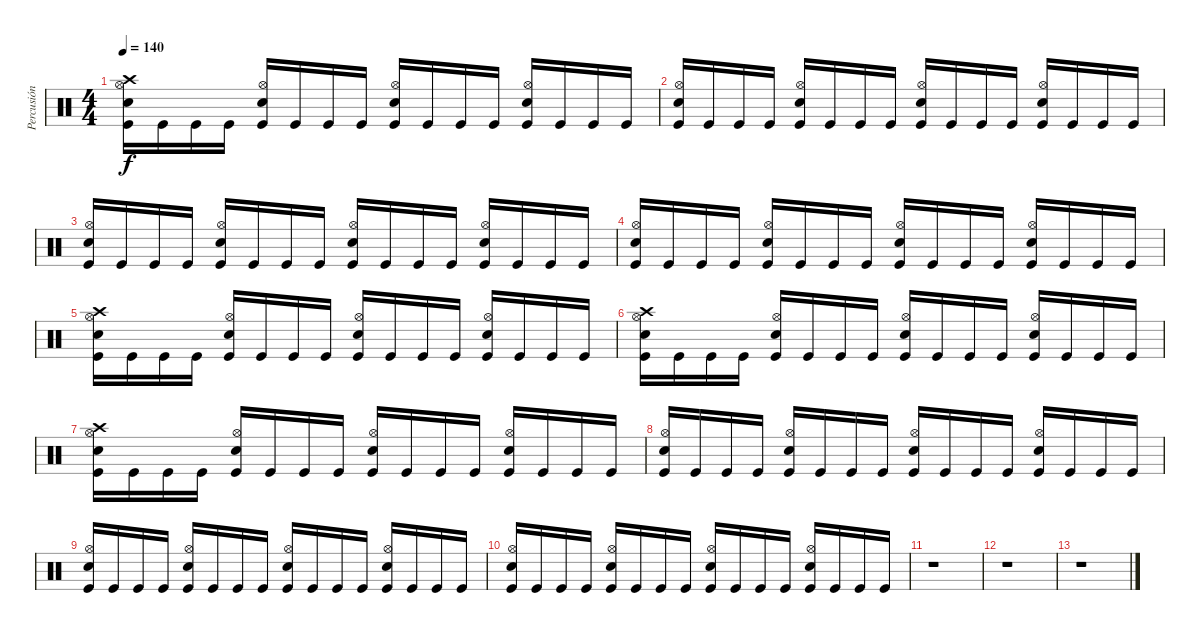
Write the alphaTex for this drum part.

\track ("Percusión" "Percusión") {instrument percussion}
\staff {score}
\articulation defaults
\ts (4 4)
\tempo 140
\clef neutral
\ks c
("Crash high (hit)" "Snare (hit) 2" "Hi-Hat (open)" "Kick (hit)").16{dy f} "Kick (hit)".16 "Kick (hit)".16 "Kick (hit)".16 ("Snare (hit) 2" "Hi-Hat (open)" "Kick (hit)").16 "Kick (hit)".16 "Kick (hit)".16 "Kick (hit)".16 ("Snare (hit) 2" "Hi-Hat (open)" "Kick (hit)").16 "Kick (hit)".16 "Kick (hit)".16 "Kick (hit)".16 ("Snare (hit) 2" "Hi-Hat (open)" "Kick (hit)").16 "Kick (hit)".16 "Kick (hit)".16 "Kick (hit)".16 |
("Snare (hit) 2" "Hi-Hat (open)" "Kick (hit)").16 "Kick (hit)".16 "Kick (hit)".16 "Kick (hit)".16 ("Snare (hit) 2" "Hi-Hat (open)" "Kick (hit)").16 "Kick (hit)".16 "Kick (hit)".16 "Kick (hit)".16 ("Snare (hit) 2" "Hi-Hat (open)" "Kick (hit)").16 "Kick (hit)".16 "Kick (hit)".16 "Kick (hit)".16 ("Snare (hit) 2" "Hi-Hat (open)" "Kick (hit)").16 "Kick (hit)".16 "Kick (hit)".16 "Kick (hit)".16 |
("Snare (hit) 2" "Hi-Hat (open)" "Kick (hit)").16 "Kick (hit)".16 "Kick (hit)".16 "Kick (hit)".16 ("Snare (hit) 2" "Hi-Hat (open)" "Kick (hit)").16 "Kick (hit)".16 "Kick (hit)".16 "Kick (hit)".16 ("Snare (hit) 2" "Hi-Hat (open)" "Kick (hit)").16 "Kick (hit)".16 "Kick (hit)".16 "Kick (hit)".16 ("Snare (hit) 2" "Hi-Hat (open)" "Kick (hit)").16 "Kick (hit)".16 "Kick (hit)".16 "Kick (hit)".16 |
("Snare (hit) 2" "Hi-Hat (open)" "Kick (hit)").16 "Kick (hit)".16 "Kick (hit)".16 "Kick (hit)".16 ("Snare (hit) 2" "Hi-Hat (open)" "Kick (hit)").16 "Kick (hit)".16 "Kick (hit)".16 "Kick (hit)".16 ("Snare (hit) 2" "Hi-Hat (open)" "Kick (hit)").16 "Kick (hit)".16 "Kick (hit)".16 "Kick (hit)".16 ("Snare (hit) 2" "Hi-Hat (open)" "Kick (hit)").16 "Kick (hit)".16 "Kick (hit)".16 "Kick (hit)".16 |
("Crash high (hit)" "Snare (hit) 2" "Hi-Hat (open)" "Kick (hit)").16 "Kick (hit)".16 "Kick (hit)".16 "Kick (hit)".16 ("Snare (hit) 2" "Hi-Hat (open)" "Kick (hit)").16 "Kick (hit)".16 "Kick (hit)".16 "Kick (hit)".16 ("Snare (hit) 2" "Hi-Hat (open)" "Kick (hit)").16 "Kick (hit)".16 "Kick (hit)".16 "Kick (hit)".16 ("Snare (hit) 2" "Hi-Hat (open)" "Kick (hit)").16 "Kick (hit)".16 "Kick (hit)".16 "Kick (hit)".16 |
("Crash high (hit)" "Snare (hit) 2" "Hi-Hat (open)" "Kick (hit)").16 "Kick (hit)".16 "Kick (hit)".16 "Kick (hit)".16 ("Snare (hit) 2" "Hi-Hat (open)" "Kick (hit)").16 "Kick (hit)".16 "Kick (hit)".16 "Kick (hit)".16 ("Snare (hit) 2" "Hi-Hat (open)" "Kick (hit)").16 "Kick (hit)".16 "Kick (hit)".16 "Kick (hit)".16 ("Snare (hit) 2" "Hi-Hat (open)" "Kick (hit)").16 "Kick (hit)".16 "Kick (hit)".16 "Kick (hit)".16 |
("Crash high (hit)" "Snare (hit) 2" "Hi-Hat (open)" "Kick (hit)").16 "Kick (hit)".16 "Kick (hit)".16 "Kick (hit)".16 ("Snare (hit) 2" "Hi-Hat (open)" "Kick (hit)").16 "Kick (hit)".16 "Kick (hit)".16 "Kick (hit)".16 ("Snare (hit) 2" "Hi-Hat (open)" "Kick (hit)").16 "Kick (hit)".16 "Kick (hit)".16 "Kick (hit)".16 ("Snare (hit) 2" "Hi-Hat (open)" "Kick (hit)").16 "Kick (hit)".16 "Kick (hit)".16 "Kick (hit)".16 |
("Snare (hit) 2" "Hi-Hat (open)" "Kick (hit)").16 "Kick (hit)".16 "Kick (hit)".16 "Kick (hit)".16 ("Snare (hit) 2" "Hi-Hat (open)" "Kick (hit)").16 "Kick (hit)".16 "Kick (hit)".16 "Kick (hit)".16 ("Snare (hit) 2" "Hi-Hat (open)" "Kick (hit)").16 "Kick (hit)".16 "Kick (hit)".16 "Kick (hit)".16 ("Snare (hit) 2" "Hi-Hat (open)" "Kick (hit)").16 "Kick (hit)".16 "Kick (hit)".16 "Kick (hit)".16 |
("Snare (hit) 2" "Hi-Hat (open)" "Kick (hit)").16 "Kick (hit)".16 "Kick (hit)".16 "Kick (hit)".16 ("Snare (hit) 2" "Hi-Hat (open)" "Kick (hit)").16 "Kick (hit)".16 "Kick (hit)".16 "Kick (hit)".16 ("Snare (hit) 2" "Hi-Hat (open)" "Kick (hit)").16 "Kick (hit)".16 "Kick (hit)".16 "Kick (hit)".16 ("Snare (hit) 2" "Hi-Hat (open)" "Kick (hit)").16 "Kick (hit)".16 "Kick (hit)".16 "Kick (hit)".16 |
("Snare (hit) 2" "Hi-Hat (open)" "Kick (hit)").16 "Kick (hit)".16 "Kick (hit)".16 "Kick (hit)".16 ("Snare (hit) 2" "Hi-Hat (open)" "Kick (hit)").16 "Kick (hit)".16 "Kick (hit)".16 "Kick (hit)".16 ("Snare (hit) 2" "Hi-Hat (open)" "Kick (hit)").16 "Kick (hit)".16 "Kick (hit)".16 "Kick (hit)".16 ("Snare (hit) 2" "Hi-Hat (open)" "Kick (hit)").16 "Kick (hit)".16 "Kick (hit)".16 "Kick (hit)".16 |
r.1 |
r.1 |
r.1
